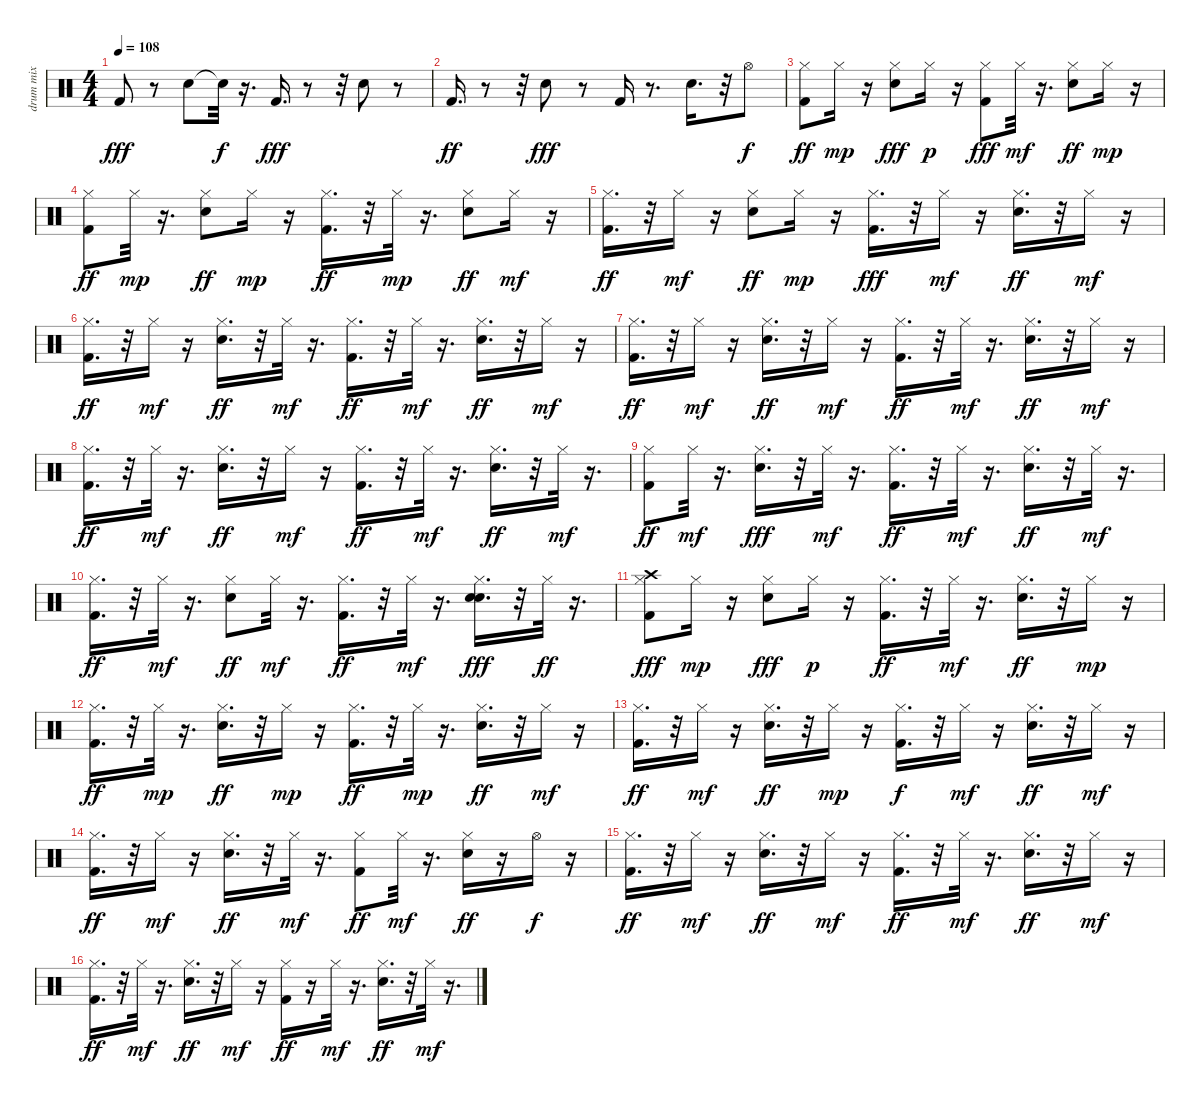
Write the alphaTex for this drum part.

\track ("drum mix" "drum mix") {instrument percussion}
\staff {score}
\articulation defaults
\ts (4 4)
\tempo 108
\clef neutral
\ks c "Kick (hit) 2".8{dy fff}
r.8 "Electric Snare (hit)".8 "Snare (hit)"{t}.32{dy f} r.16{d} "Kick (hit) 2".16{d dy fff} r.8 r.32 "Electric Snare (hit)".8 r.8 |
"Kick (hit) 2".16{d dy ff} r.8 r.32 "Electric Snare (hit)".8{dy fff} r.8 "Kick (hit) 2".16 r.8{d} "Electric Snare (hit)".16{d} r.32 "Hi-Hat (open)".8{dy f} |
("Kick (hit) 2" "Hi-Hat (closed)").8{dy ff} "Hi-Hat (closed)".16{dy mp} r.16 ("Electric Snare (hit)" "Hi-Hat (closed)").8{dy fff} "Hi-Hat (closed)".16{dy p} r.16 ("Kick (hit) 2" "Hi-Hat (closed)").8{dy fff} "Hi-Hat (closed)".32{dy mf} r.16{d} ("Electric Snare (hit)" "Hi-Hat (closed)").8{dy ff} "Hi-Hat (closed)".16{dy mp} r.16 |
("Kick (hit) 2" "Hi-Hat (closed)").8{dy ff} "Hi-Hat (closed)".32{dy mp} r.16{d} ("Electric Snare (hit)" "Hi-Hat (closed)").8{dy ff} "Hi-Hat (closed)".16{dy mp} r.16 ("Kick (hit) 2" "Hi-Hat (closed)").16{d dy ff} r.32 "Hi-Hat (closed)".32{dy mp} r.16{d} ("Electric Snare (hit)" "Hi-Hat (closed)").8{dy ff} "Hi-Hat (closed)".16{dy mf} r.16 |
("Kick (hit) 2" "Hi-Hat (closed)").16{d dy ff} r.32 "Hi-Hat (closed)".16{dy mf} r.16 ("Electric Snare (hit)" "Hi-Hat (closed)").8{dy ff} "Hi-Hat (closed)".16{dy mp} r.16 ("Kick (hit) 2" "Hi-Hat (closed)").16{d dy fff} r.32 "Hi-Hat (closed)".16{dy mf} r.16 ("Electric Snare (hit)" "Hi-Hat (closed)").16{d dy ff} r.32 "Hi-Hat (closed)".16{dy mf} r.16 |
("Kick (hit) 2" "Hi-Hat (closed)").16{d dy ff} r.32 "Hi-Hat (closed)".16{dy mf} r.16 ("Electric Snare (hit)" "Hi-Hat (closed)").16{d dy ff} r.32 "Hi-Hat (closed)".32{dy mf} r.16{d} ("Kick (hit) 2" "Hi-Hat (closed)").16{d dy ff} r.32 "Hi-Hat (closed)".32{dy mf} r.16{d} ("Electric Snare (hit)" "Hi-Hat (closed)").16{d dy ff} r.32 "Hi-Hat (closed)".16{dy mf} r.16 |
("Kick (hit) 2" "Hi-Hat (closed)").16{d dy ff} r.32 "Hi-Hat (closed)".16{dy mf} r.16 ("Electric Snare (hit)" "Hi-Hat (closed)").16{d dy ff} r.32 "Hi-Hat (closed)".16{dy mf} r.16 ("Kick (hit) 2" "Hi-Hat (closed)").16{d dy ff} r.32 "Hi-Hat (closed)".32{dy mf} r.16{d} ("Electric Snare (hit)" "Hi-Hat (closed)").16{d dy ff} r.32 "Hi-Hat (closed)".16{dy mf} r.16 |
("Kick (hit) 2" "Hi-Hat (closed)").16{d dy ff} r.32 "Hi-Hat (closed)".32{dy mf} r.16{d} ("Electric Snare (hit)" "Hi-Hat (closed)").16{d dy ff} r.32 "Hi-Hat (closed)".16{dy mf} r.16 ("Kick (hit) 2" "Hi-Hat (closed)").16{d dy ff} r.32 "Hi-Hat (closed)".32{dy mf} r.16{d} ("Electric Snare (hit)" "Hi-Hat (closed)").16{d dy ff} r.32 "Hi-Hat (closed)".32{dy mf} r.16{d} |
("Kick (hit) 2" "Hi-Hat (closed)").8{dy ff} "Hi-Hat (closed)".32{dy mf} r.16{d} ("Electric Snare (hit)" "Hi-Hat (closed)").16{d dy fff} r.32 "Hi-Hat (closed)".32{dy mf} r.16{d} ("Kick (hit) 2" "Hi-Hat (closed)").16{d dy ff} r.32 "Hi-Hat (closed)".32{dy mf} r.16{d} ("Electric Snare (hit)" "Hi-Hat (closed)").16{d dy ff} r.32 "Hi-Hat (closed)".32{dy mf} r.16{d} |
("Kick (hit) 2" "Hi-Hat (closed)").16{d dy ff} r.32 "Hi-Hat (closed)".32{dy mf} r.16{d} ("Electric Snare (hit)" "Hi-Hat (closed)").8{dy ff} "Hi-Hat (closed)".32{dy mf} r.16{d} ("Kick (hit) 2" "Hi-Hat (closed)").16{d dy ff} r.32 "Hi-Hat (closed)".32{dy mf} r.16{d} ("Electric Snare (hit)" "Hi-Hat (closed)" "Electric Snare (hit)").16{d dy fff} r.32 "Hi-Hat (closed)".32{dy ff} r.16{d} |
("Kick (hit) 2" "Hi-Hat (closed)" "Crash high (hit)").8{dy fff} "Hi-Hat (closed)".16{dy mp} r.16 ("Electric Snare (hit)" "Hi-Hat (closed)").8{dy fff} "Hi-Hat (closed)".16{dy p} r.16 ("Kick (hit) 2" "Hi-Hat (closed)").16{d dy ff} r.32 "Hi-Hat (closed)".32{dy mf} r.16{d} ("Electric Snare (hit)" "Hi-Hat (closed)").16{d dy ff} r.32 "Hi-Hat (closed)".16{dy mp} r.16 |
("Kick (hit) 2" "Hi-Hat (closed)").16{d dy ff} r.32 "Hi-Hat (closed)".32{dy mp} r.16{d} ("Electric Snare (hit)" "Hi-Hat (closed)").16{d dy ff} r.32 "Hi-Hat (closed)".16{dy mp} r.16 ("Kick (hit) 2" "Hi-Hat (closed)").16{d dy ff} r.32 "Hi-Hat (closed)".32{dy mp} r.16{d} ("Electric Snare (hit)" "Hi-Hat (closed)").16{d dy ff} r.32 "Hi-Hat (closed)".16{dy mf} r.16 |
("Kick (hit) 2" "Hi-Hat (closed)").16{d dy ff} r.32 "Hi-Hat (closed)".16{dy mf} r.16 ("Electric Snare (hit)" "Hi-Hat (closed)").16{d dy ff} r.32 "Hi-Hat (closed)".16{dy mp} r.16 ("Kick (hit) 2" "Hi-Hat (closed)").16{d dy f} r.32 "Hi-Hat (closed)".16{dy mf} r.16 ("Electric Snare (hit)" "Hi-Hat (closed)").16{d dy ff} r.32 "Hi-Hat (closed)".16{dy mf} r.16 |
("Kick (hit) 2" "Hi-Hat (closed)").16{d dy ff} r.32 "Hi-Hat (closed)".16{dy mf} r.16 ("Electric Snare (hit)" "Hi-Hat (closed)").16{d dy ff} r.32 "Hi-Hat (closed)".32{dy mf} r.16{d} ("Kick (hit) 2" "Hi-Hat (closed)").8{dy ff} "Hi-Hat (closed)".32{dy mf} r.16{d} ("Electric Snare (hit)" "Hi-Hat (closed)").16{dy ff} r.16 "Hi-Hat (open)".16{dy f} r.16 |
("Kick (hit) 2" "Hi-Hat (closed)").16{d dy ff} r.32 "Hi-Hat (closed)".16{dy mf} r.16 ("Electric Snare (hit)" "Hi-Hat (closed)").16{d dy ff} r.32 "Hi-Hat (closed)".16{dy mf} r.16 ("Kick (hit) 2" "Hi-Hat (closed)").16{d dy ff} r.32 "Hi-Hat (closed)".32{dy mf} r.16{d} ("Electric Snare (hit)" "Hi-Hat (closed)").16{d dy ff} r.32 "Hi-Hat (closed)".16{dy mf} r.16 |
("Kick (hit) 2" "Hi-Hat (closed)").16{d dy ff} r.32 "Hi-Hat (closed)".32{dy mf} r.16{d} ("Electric Snare (hit)" "Hi-Hat (closed)").16{d dy ff} r.32 "Hi-Hat (closed)".16{dy mf} r.16 ("Kick (hit) 2" "Hi-Hat (closed)").16{dy ff} r.16 "Hi-Hat (closed)".32{dy mf} r.16{d} ("Electric Snare (hit)" "Hi-Hat (closed)").16{d dy ff} r.32 "Hi-Hat (closed)".32{dy mf} r.16{d}
